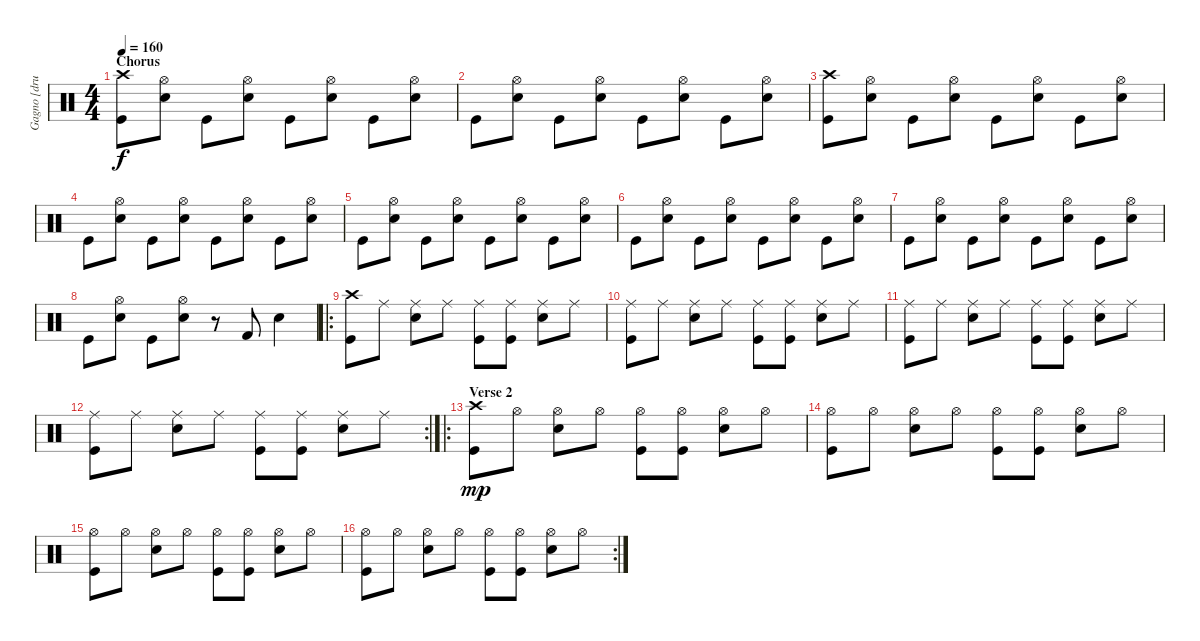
\track ("Gagno [drums]" "Gagno [dru") {instrument percussion}
\staff {score}
\articulation defaults
\ts (4 4)
\section ("" "Chorus")
\tempo 160
\clef neutral
\ks c
("Crash high (hit)" "Kick (hit)").8{dy f} ("Hi-Hat (open)" "Snare (hit) 2").8 "Kick (hit)".8 ("Hi-Hat (open)" "Snare (hit) 2").8 "Kick (hit)".8 ("Hi-Hat (open)" "Snare (hit) 2").8 "Kick (hit)".8 ("Hi-Hat (open)" "Snare (hit) 2").8 |
"Kick (hit)".8 ("Hi-Hat (open)" "Snare (hit) 2").8 "Kick (hit)".8 ("Hi-Hat (open)" "Snare (hit) 2").8 "Kick (hit)".8 ("Hi-Hat (open)" "Snare (hit) 2").8 "Kick (hit)".8 ("Hi-Hat (open)" "Snare (hit) 2").8 |
("Crash high (hit)" "Kick (hit)").8 ("Hi-Hat (open)" "Snare (hit) 2").8 "Kick (hit)".8 ("Hi-Hat (open)" "Snare (hit) 2").8 "Kick (hit)".8 ("Hi-Hat (open)" "Snare (hit) 2").8 "Kick (hit)".8 ("Hi-Hat (open)" "Snare (hit) 2").8 |
"Kick (hit)".8 ("Hi-Hat (open)" "Snare (hit) 2").8 "Kick (hit)".8 ("Hi-Hat (open)" "Snare (hit) 2").8 "Kick (hit)".8 ("Hi-Hat (open)" "Snare (hit) 2").8 "Kick (hit)".8 ("Hi-Hat (open)" "Snare (hit) 2").8 |
"Kick (hit)".8 ("Hi-Hat (open)" "Snare (hit) 2").8 "Kick (hit)".8 ("Hi-Hat (open)" "Snare (hit) 2").8 "Kick (hit)".8 ("Hi-Hat (open)" "Snare (hit) 2").8 "Kick (hit)".8 ("Hi-Hat (open)" "Snare (hit) 2").8 |
"Kick (hit)".8 ("Hi-Hat (open)" "Snare (hit) 2").8 "Kick (hit)".8 ("Hi-Hat (open)" "Snare (hit) 2").8 "Kick (hit)".8 ("Hi-Hat (open)" "Snare (hit) 2").8 "Kick (hit)".8 ("Hi-Hat (open)" "Snare (hit) 2").8 |
"Kick (hit)".8 ("Hi-Hat (open)" "Snare (hit) 2").8 "Kick (hit)".8 ("Hi-Hat (open)" "Snare (hit) 2").8 "Kick (hit)".8 ("Hi-Hat (open)" "Snare (hit) 2").8 "Kick (hit)".8 ("Hi-Hat (open)" "Snare (hit) 2").8 |
"Kick (hit)".8 ("Hi-Hat (open)" "Snare (hit) 2").8 "Kick (hit)".8 ("Hi-Hat (open)" "Snare (hit) 2").8 r.8 "Kick (hit) 2".8 "Electric Snare (hit)".4 |
\ro
("Crash high (hit)" "Kick (hit)").8 "Ride (middle)".8 ("Ride (middle)" "Snare (hit) 2").8 "Ride (middle)".8 ("Ride (middle)" "Kick (hit)").8 ("Ride (middle)" "Kick (hit)").8 ("Ride (middle)" "Snare (hit) 2").8 "Ride (middle)".8 |
("Ride (middle)" "Kick (hit)").8 "Ride (middle)".8 ("Ride (middle)" "Snare (hit) 2").8 "Ride (middle)".8 ("Ride (middle)" "Kick (hit)").8 ("Ride (middle)" "Kick (hit)").8 ("Ride (middle)" "Snare (hit) 2").8 "Ride (middle)".8 |
("Ride (middle)" "Kick (hit)").8 "Ride (middle)".8 ("Ride (middle)" "Snare (hit) 2").8 "Ride (middle)".8 ("Ride (middle)" "Kick (hit)").8 ("Ride (middle)" "Kick (hit)").8 ("Ride (middle)" "Snare (hit) 2").8 "Ride (middle)".8 |
\rc 2
("Ride (middle)" "Kick (hit)").8 "Ride (middle)".8 ("Ride (middle)" "Snare (hit) 2").8 "Ride (middle)".8 ("Ride (middle)" "Kick (hit)").8 ("Ride (middle)" "Kick (hit)").8 ("Ride (middle)" "Snare (hit) 2").8 "Ride (middle)".8 |
\ro
\section ("" "Verse 2")
("Crash high (hit)" "Kick (hit)").8{dy mp} "Hi-Hat (open)".8 ("Hi-Hat (open)" "Snare (hit) 2").8 "Hi-Hat (open)".8 ("Hi-Hat (open)" "Kick (hit)").8 ("Hi-Hat (open)" "Kick (hit)").8 ("Hi-Hat (open)" "Snare (hit) 2").8 "Hi-Hat (open)".8 |
("Hi-Hat (open)" "Kick (hit)").8 "Hi-Hat (open)".8 ("Hi-Hat (open)" "Snare (hit) 2").8 "Hi-Hat (open)".8 ("Hi-Hat (open)" "Kick (hit)").8 ("Hi-Hat (open)" "Kick (hit)").8 ("Hi-Hat (open)" "Snare (hit) 2").8 "Hi-Hat (open)".8 |
("Hi-Hat (open)" "Kick (hit)").8 "Hi-Hat (open)".8 ("Hi-Hat (open)" "Snare (hit) 2").8 "Hi-Hat (open)".8 ("Hi-Hat (open)" "Kick (hit)").8 ("Hi-Hat (open)" "Kick (hit)").8 ("Hi-Hat (open)" "Snare (hit) 2").8 "Hi-Hat (open)".8 |
\rc 2
("Hi-Hat (open)" "Kick (hit)").8 "Hi-Hat (open)".8 ("Hi-Hat (open)" "Snare (hit) 2").8 "Hi-Hat (open)".8 ("Hi-Hat (open)" "Kick (hit)").8 ("Hi-Hat (open)" "Kick (hit)").8 ("Hi-Hat (open)" "Snare (hit) 2").8 "Hi-Hat (open)".8
